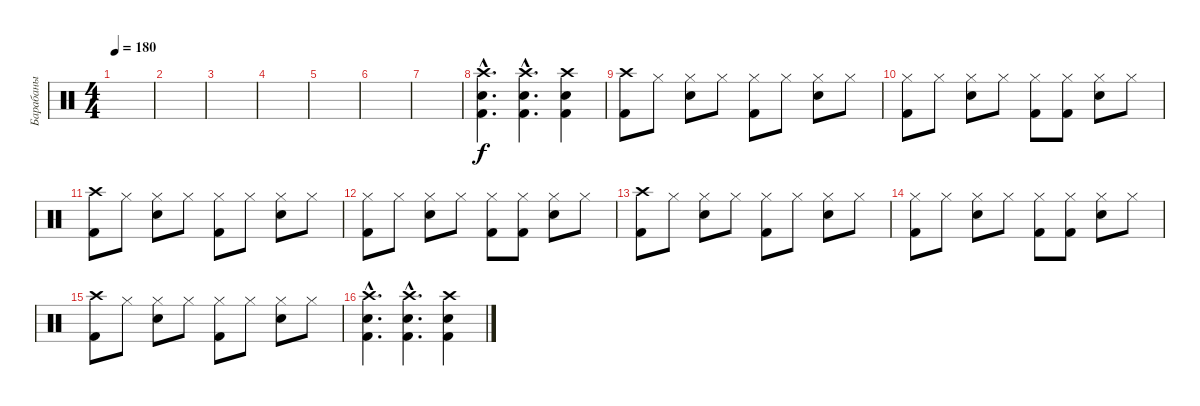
\track ("Барабаны" "Барабаны") {instrument percussion}
\staff {score}
\articulation defaults
\ts (4 4)
\tempo 180
\clef neutral
\ks c
|
|
|
|
|
|
|
("Crash high (hit)"{hac} "Kick (hit) 2"{hac} "Electric Snare (hit)"{hac}).4{d} ("Crash high (hit)"{hac} "Kick (hit) 2"{hac} "Electric Snare (hit)"{hac}).4{d} ("Crash high (hit)" "Kick (hit) 2" "Electric Snare (hit)").4 |
("Crash high (hit)" "Kick (hit) 2").8 "Hi-Hat (closed)".8 ("Hi-Hat (closed)" "Electric Snare (hit)").8 "Hi-Hat (closed)".8 ("Hi-Hat (closed)" "Kick (hit) 2").8 "Hi-Hat (closed)".8 ("Hi-Hat (closed)" "Electric Snare (hit)").8 "Hi-Hat (closed)".8 |
("Hi-Hat (closed)" "Kick (hit) 2").8 "Hi-Hat (closed)".8 ("Hi-Hat (closed)" "Electric Snare (hit)").8 "Hi-Hat (closed)".8 ("Hi-Hat (closed)" "Kick (hit) 2").8 ("Hi-Hat (closed)" "Kick (hit) 2").8 ("Hi-Hat (closed)" "Electric Snare (hit)").8 "Hi-Hat (closed)".8 |
("Crash high (hit)" "Kick (hit) 2").8 "Hi-Hat (closed)".8 ("Hi-Hat (closed)" "Electric Snare (hit)").8 "Hi-Hat (closed)".8 ("Hi-Hat (closed)" "Kick (hit) 2").8 "Hi-Hat (closed)".8 ("Hi-Hat (closed)" "Electric Snare (hit)").8 "Hi-Hat (closed)".8 |
("Hi-Hat (closed)" "Kick (hit) 2").8 "Hi-Hat (closed)".8 ("Hi-Hat (closed)" "Electric Snare (hit)").8 "Hi-Hat (closed)".8 ("Hi-Hat (closed)" "Kick (hit) 2").8 ("Hi-Hat (closed)" "Kick (hit) 2").8 ("Hi-Hat (closed)" "Electric Snare (hit)").8 "Hi-Hat (closed)".8 |
("Crash high (hit)" "Kick (hit) 2").8 "Hi-Hat (closed)".8 ("Hi-Hat (closed)" "Electric Snare (hit)").8 "Hi-Hat (closed)".8 ("Hi-Hat (closed)" "Kick (hit) 2").8 "Hi-Hat (closed)".8 ("Hi-Hat (closed)" "Electric Snare (hit)").8 "Hi-Hat (closed)".8 |
("Hi-Hat (closed)" "Kick (hit) 2").8 "Hi-Hat (closed)".8 ("Hi-Hat (closed)" "Electric Snare (hit)").8 "Hi-Hat (closed)".8 ("Hi-Hat (closed)" "Kick (hit) 2").8 ("Hi-Hat (closed)" "Kick (hit) 2").8 ("Hi-Hat (closed)" "Electric Snare (hit)").8 "Hi-Hat (closed)".8 |
("Crash high (hit)" "Kick (hit) 2").8 "Hi-Hat (closed)".8 ("Hi-Hat (closed)" "Electric Snare (hit)").8 "Hi-Hat (closed)".8 ("Hi-Hat (closed)" "Kick (hit) 2").8 "Hi-Hat (closed)".8 ("Hi-Hat (closed)" "Electric Snare (hit)").8 "Hi-Hat (closed)".8 |
("Crash high (hit)"{hac} "Kick (hit) 2"{hac} "Electric Snare (hit)"{hac}).4{d} ("Crash high (hit)"{hac} "Kick (hit) 2"{hac} "Electric Snare (hit)"{hac}).4{d} ("Crash high (hit)" "Kick (hit) 2" "Electric Snare (hit)").4
